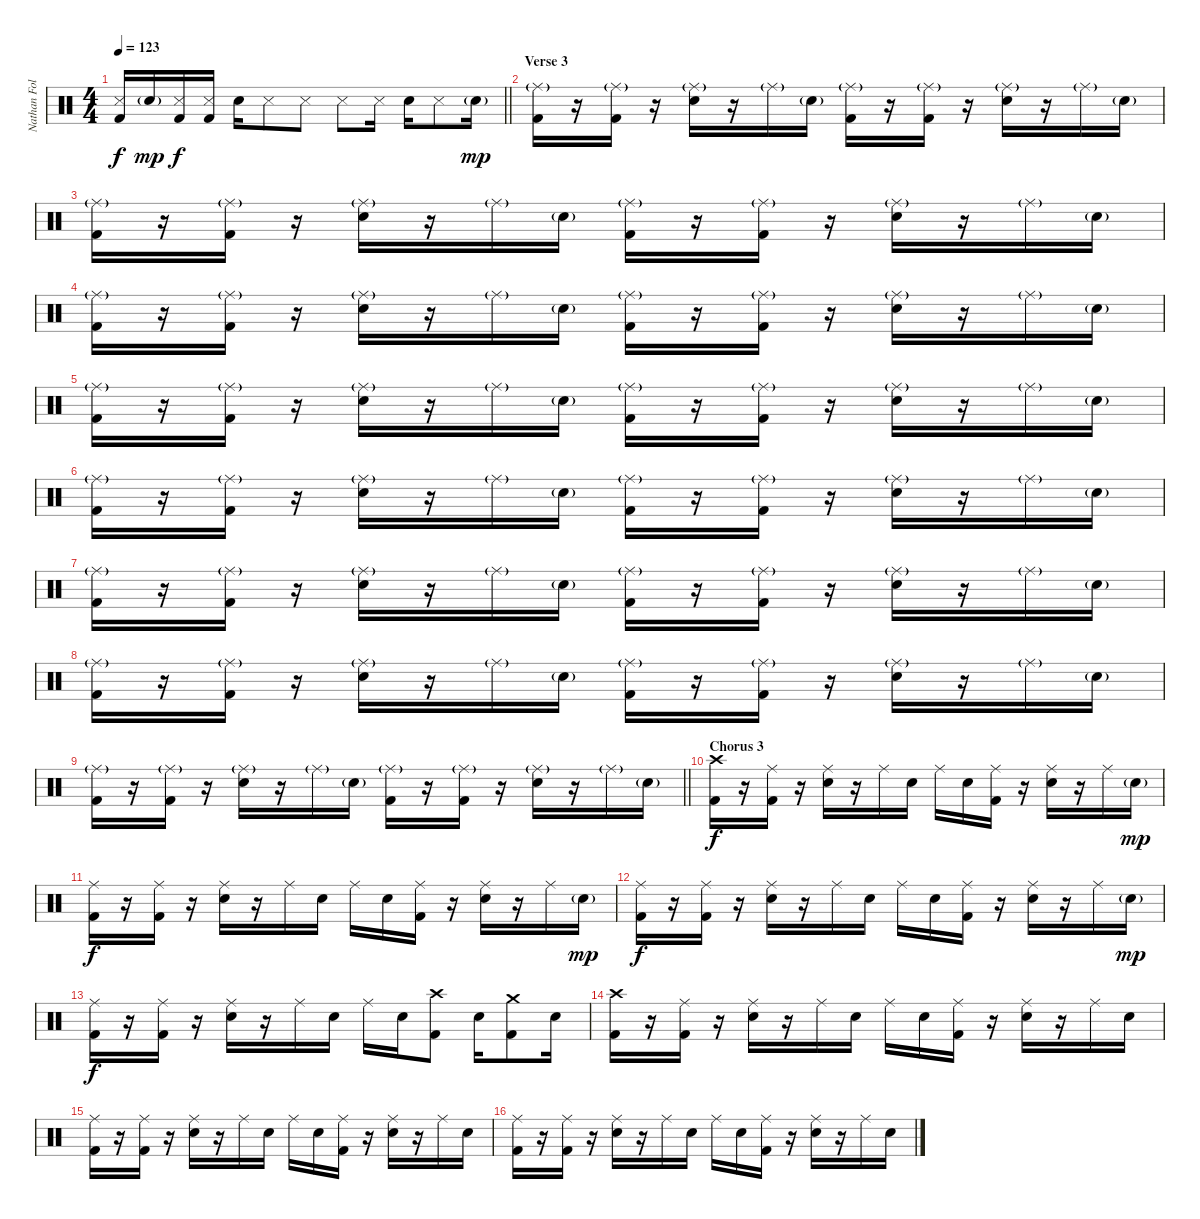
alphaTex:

\track ("Nathan Followill" "Nathan Fol") {instrument percussion}
\staff {score}
\articulation defaults
\ts (4 4)
\tempo 123
\clef neutral
\barLineRight lightlight
\ks c
("Snare (side stick) 3" "Kick (hit) 2").16{dy f} "Electric Snare (hit)"{g}.16{dy mp} ("Snare (side stick) 3" "Kick (hit) 2").16{dy f} ("Snare (side stick) 3" "Kick (hit) 2").16 "Electric Snare (hit)".16 "Snare (side stick) 3".8 "Snare (side stick) 3".8 "Snare (side stick) 3".8 "Snare (side stick) 3".16 "Electric Snare (hit)".16 "Snare (side stick) 3".8 "Electric Snare (hit)"{g}.16{dy mp} |
\section ("" "Verse 3")
("Ride (middle)"{g} "Kick (hit) 2").16 r.16 ("Ride (middle)"{g} "Kick (hit) 2").16 r.16 ("Ride (middle)"{g} "Electric Snare (hit)").16 r.16 "Ride (middle)"{g}.16 "Electric Snare (hit)"{g}.16 ("Ride (middle)"{g} "Kick (hit) 2").16 r.16 ("Ride (middle)"{g} "Kick (hit) 2").16 r.16 ("Ride (middle)"{g} "Electric Snare (hit)").16 r.16 "Ride (middle)"{g}.16 "Electric Snare (hit)"{g}.16 |
("Ride (middle)"{g} "Kick (hit) 2").16 r.16 ("Ride (middle)"{g} "Kick (hit) 2").16 r.16 ("Ride (middle)"{g} "Electric Snare (hit)").16 r.16 "Ride (middle)"{g}.16 "Electric Snare (hit)"{g}.16 ("Ride (middle)"{g} "Kick (hit) 2").16 r.16 ("Ride (middle)"{g} "Kick (hit) 2").16 r.16 ("Ride (middle)"{g} "Electric Snare (hit)").16 r.16 "Ride (middle)"{g}.16 "Electric Snare (hit)"{g}.16 |
("Ride (middle)"{g} "Kick (hit) 2").16 r.16 ("Ride (middle)"{g} "Kick (hit) 2").16 r.16 ("Ride (middle)"{g} "Electric Snare (hit)").16 r.16 "Ride (middle)"{g}.16 "Electric Snare (hit)"{g}.16 ("Ride (middle)"{g} "Kick (hit) 2").16 r.16 ("Ride (middle)"{g} "Kick (hit) 2").16 r.16 ("Ride (middle)"{g} "Electric Snare (hit)").16 r.16 "Ride (middle)"{g}.16 "Electric Snare (hit)"{g}.16 |
("Ride (middle)"{g} "Kick (hit) 2").16 r.16 ("Ride (middle)"{g} "Kick (hit) 2").16 r.16 ("Ride (middle)"{g} "Electric Snare (hit)").16 r.16 "Ride (middle)"{g}.16 "Electric Snare (hit)"{g}.16 ("Ride (middle)"{g} "Kick (hit) 2").16 r.16 ("Ride (middle)"{g} "Kick (hit) 2").16 r.16 ("Ride (middle)"{g} "Electric Snare (hit)").16 r.16 "Ride (middle)"{g}.16 "Electric Snare (hit)"{g}.16 |
("Ride (middle)"{g} "Kick (hit) 2").16 r.16 ("Ride (middle)"{g} "Kick (hit) 2").16 r.16 ("Ride (middle)"{g} "Electric Snare (hit)").16 r.16 "Ride (middle)"{g}.16 "Electric Snare (hit)"{g}.16 ("Ride (middle)"{g} "Kick (hit) 2").16 r.16 ("Ride (middle)"{g} "Kick (hit) 2").16 r.16 ("Ride (middle)"{g} "Electric Snare (hit)").16 r.16 "Ride (middle)"{g}.16 "Electric Snare (hit)"{g}.16 |
("Ride (middle)"{g} "Kick (hit) 2").16 r.16 ("Ride (middle)"{g} "Kick (hit) 2").16 r.16 ("Ride (middle)"{g} "Electric Snare (hit)").16 r.16 "Ride (middle)"{g}.16 "Electric Snare (hit)"{g}.16 ("Ride (middle)"{g} "Kick (hit) 2").16 r.16 ("Ride (middle)"{g} "Kick (hit) 2").16 r.16 ("Ride (middle)"{g} "Electric Snare (hit)").16 r.16 "Ride (middle)"{g}.16 "Electric Snare (hit)"{g}.16 |
("Ride (middle)"{g} "Kick (hit) 2").16 r.16 ("Ride (middle)"{g} "Kick (hit) 2").16 r.16 ("Ride (middle)"{g} "Electric Snare (hit)").16 r.16 "Ride (middle)"{g}.16 "Electric Snare (hit)"{g}.16 ("Ride (middle)"{g} "Kick (hit) 2").16 r.16 ("Ride (middle)"{g} "Kick (hit) 2").16 r.16 ("Ride (middle)"{g} "Electric Snare (hit)").16 r.16 "Ride (middle)"{g}.16 "Electric Snare (hit)"{g}.16 |
\barLineRight lightlight
("Ride (middle)"{g} "Kick (hit) 2").16 r.16 ("Ride (middle)"{g} "Kick (hit) 2").16 r.16 ("Ride (middle)"{g} "Electric Snare (hit)").16 r.16 "Ride (middle)"{g}.16 "Electric Snare (hit)"{g}.16 ("Ride (middle)"{g} "Kick (hit) 2").16 r.16 ("Ride (middle)"{g} "Kick (hit) 2").16 r.16 ("Ride (middle)"{g} "Electric Snare (hit)").16 r.16 "Ride (middle)"{g}.16 "Electric Snare (hit)"{g}.16 |
\section ("" "Chorus 3")
("Crash high (hit)" "Kick (hit) 2").16{dy f} r.16 ("Ride (middle)" "Kick (hit) 2").16 r.16 ("Ride (middle)" "Electric Snare (hit)").16 r.16 "Ride (middle)".16 "Electric Snare (hit)".16 "Ride (middle)".16 "Electric Snare (hit)".16 ("Ride (middle)" "Kick (hit) 2").16 r.16 ("Ride (middle)" "Electric Snare (hit)").16 r.16 "Ride (middle)".16 "Electric Snare (hit)"{g}.16{dy mp} |
("Ride (middle)" "Kick (hit) 2").16{dy f} r.16 ("Ride (middle)" "Kick (hit) 2").16 r.16 ("Ride (middle)" "Electric Snare (hit)").16 r.16 "Ride (middle)".16 "Electric Snare (hit)".16 "Ride (middle)".16 "Electric Snare (hit)".16 ("Ride (middle)" "Kick (hit) 2").16 r.16 ("Ride (middle)" "Electric Snare (hit)").16 r.16 "Ride (middle)".16 "Electric Snare (hit)"{g}.16{dy mp} |
("Ride (middle)" "Kick (hit) 2").16{dy f} r.16 ("Ride (middle)" "Kick (hit) 2").16 r.16 ("Ride (middle)" "Electric Snare (hit)").16 r.16 "Ride (middle)".16 "Electric Snare (hit)".16 "Ride (middle)".16 "Electric Snare (hit)".16 ("Ride (middle)" "Kick (hit) 2").16 r.16 ("Ride (middle)" "Electric Snare (hit)").16 r.16 "Ride (middle)".16 "Electric Snare (hit)"{g}.16{dy mp} |
("Ride (middle)" "Kick (hit) 2").16{dy f} r.16 ("Ride (middle)" "Kick (hit) 2").16 r.16 ("Ride (middle)" "Electric Snare (hit)").16 r.16 "Ride (middle)".16 "Electric Snare (hit)".16 "Ride (middle)".16 "Electric Snare (hit)".16 ("Crash high (hit)" "Kick (hit) 2").8 "Electric Snare (hit)".16 ("Crash medium (hit)" "Kick (hit) 2").8 "Electric Snare (hit)".16 |
("Crash high (hit)" "Kick (hit) 2").16 r.16 ("Ride (middle)" "Kick (hit) 2").16 r.16 ("Ride (middle)" "Electric Snare (hit)").16 r.16 "Ride (middle)".16 "Electric Snare (hit)".16 "Ride (middle)".16 "Electric Snare (hit)".16 ("Ride (middle)" "Kick (hit) 2").16 r.16 ("Ride (middle)" "Electric Snare (hit)").16 r.16 "Ride (middle)".16 "Electric Snare (hit)".16 |
("Ride (middle)" "Kick (hit) 2").16 r.16 ("Ride (middle)" "Kick (hit) 2").16 r.16 ("Ride (middle)" "Electric Snare (hit)").16 r.16 "Ride (middle)".16 "Electric Snare (hit)".16 "Ride (middle)".16 "Electric Snare (hit)".16 ("Ride (middle)" "Kick (hit) 2").16 r.16 ("Ride (middle)" "Electric Snare (hit)").16 r.16 "Ride (middle)".16 "Electric Snare (hit)".16 |
("Ride (middle)" "Kick (hit) 2").16 r.16 ("Ride (middle)" "Kick (hit) 2").16 r.16 ("Ride (middle)" "Electric Snare (hit)").16 r.16 "Ride (middle)".16 "Electric Snare (hit)".16 "Ride (middle)".16 "Electric Snare (hit)".16 ("Ride (middle)" "Kick (hit) 2").16 r.16 ("Ride (middle)" "Electric Snare (hit)").16 r.16 "Ride (middle)".16 "Electric Snare (hit)".16
